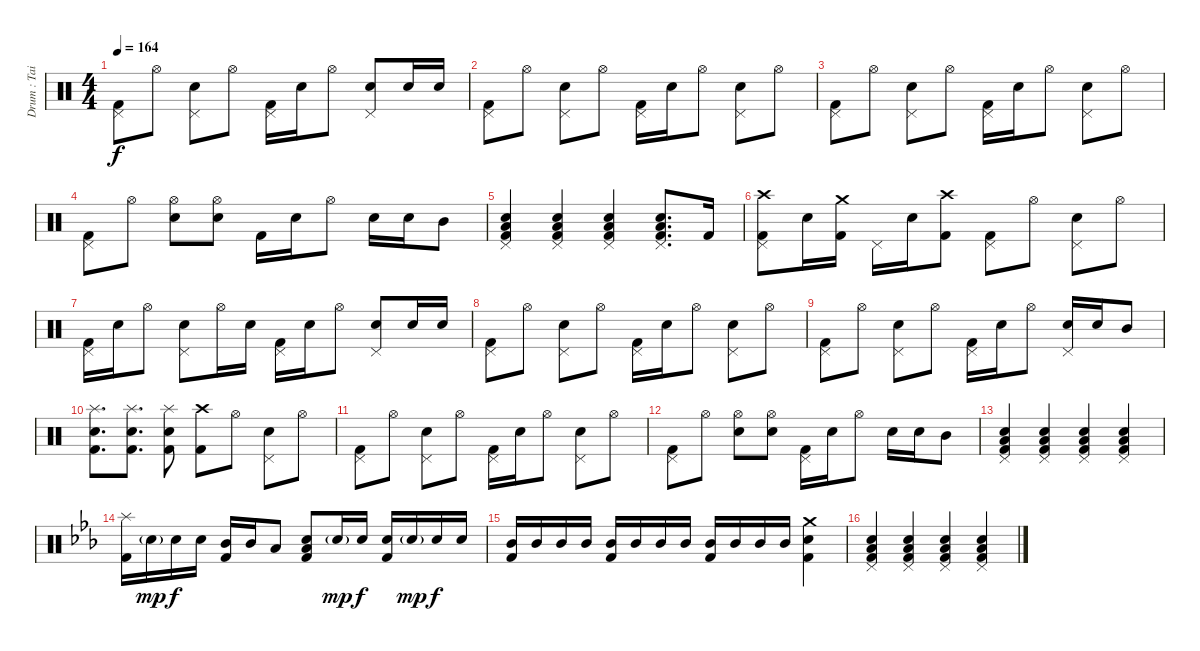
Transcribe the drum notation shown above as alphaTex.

\track ("Drum : Tainaka Ritsu - Chan" "Drum : Tai") {instrument percussion}
\staff {score}
\articulation defaults
\ts (4 4)
\tempo 164
\clef neutral
\ks c
("Pedal Hi-Hat (hit)" "Kick (hit) 2").8{dy f} "Hi-Hat (open)".8 ("Pedal Hi-Hat (hit)" "Electric Snare (hit)").8 "Hi-Hat (open)".8 ("Pedal Hi-Hat (hit)" "Kick (hit) 2").16 "Electric Snare (hit)".16 "Hi-Hat (open)".8 ("Pedal Hi-Hat (hit)" "Electric Snare (hit)").8 "Electric Snare (hit)".16 "Electric Snare (hit)".16 |
("Pedal Hi-Hat (hit)" "Kick (hit) 2").8 "Hi-Hat (open)".8 ("Pedal Hi-Hat (hit)" "Electric Snare (hit)").8 "Hi-Hat (open)".8 ("Pedal Hi-Hat (hit)" "Kick (hit) 2").16 "Electric Snare (hit)".16 "Hi-Hat (open)".8 ("Pedal Hi-Hat (hit)" "Electric Snare (hit)").8 "Hi-Hat (open)".8 |
("Pedal Hi-Hat (hit)" "Kick (hit) 2").8 "Hi-Hat (open)".8 ("Pedal Hi-Hat (hit)" "Electric Snare (hit)").8 "Hi-Hat (open)".8 ("Pedal Hi-Hat (hit)" "Kick (hit) 2").16 "Electric Snare (hit)".16 "Hi-Hat (open)".8 ("Pedal Hi-Hat (hit)" "Electric Snare (hit)").8 "Hi-Hat (open)".8 |
("Pedal Hi-Hat (hit)" "Kick (hit) 2").8 "Hi-Hat (open)".8 ("Hi-Hat (open)" "Electric Snare (hit)").8 ("Hi-Hat (open)" "Electric Snare (hit)").8 "Kick (hit) 2".16 "Electric Snare (hit)".16 "Hi-Hat (open)".8 "Electric Snare (hit)".16 "Electric Snare (hit)".16 "Mid Tom (hit)".8 |
("Pedal Hi-Hat (hit)" "Electric Snare (hit)" "Low Floor Tom (hit)" "Kick (hit) 2").4 ("Pedal Hi-Hat (hit)" "Electric Snare (hit)" "Low Floor Tom (hit)" "Kick (hit) 2").4 ("Pedal Hi-Hat (hit)" "Electric Snare (hit)" "Low Floor Tom (hit)" "Kick (hit) 2").4 ("Pedal Hi-Hat (hit)" "Electric Snare (hit)" "Low Floor Tom (hit)" "Kick (hit) 2").8{d} "Kick (hit) 2".16 |
("Crash high (hit)" "Pedal Hi-Hat (hit)" "Kick (hit) 2").8 "Electric Snare (hit)".16 ("Crash medium (hit)" "Kick (hit) 2").16 "Pedal Hi-Hat (hit)".16 "Electric Snare (hit)".16 ("Crash high (hit)" "Kick (hit) 2").8 ("Pedal Hi-Hat (hit)" "Kick (hit) 2").8 "Hi-Hat (open)".8 ("Pedal Hi-Hat (hit)" "Electric Snare (hit)").8 "Hi-Hat (open)".8 |
("Pedal Hi-Hat (hit)" "Kick (hit) 2").16 "Electric Snare (hit)".16 "Hi-Hat (open)".8 ("Pedal Hi-Hat (hit)" "Electric Snare (hit)").8 "Hi-Hat (open)".16 "Electric Snare (hit)".16 ("Pedal Hi-Hat (hit)" "Kick (hit) 2").16 "Electric Snare (hit)".16 "Hi-Hat (open)".8 ("Pedal Hi-Hat (hit)" "Electric Snare (hit)").8 "Electric Snare (hit)".16 "Electric Snare (hit)".16 |
("Pedal Hi-Hat (hit)" "Kick (hit) 2").8 "Hi-Hat (open)".8 ("Pedal Hi-Hat (hit)" "Electric Snare (hit)").8 "Hi-Hat (open)".8 ("Pedal Hi-Hat (hit)" "Kick (hit) 2").16 "Electric Snare (hit)".16 "Hi-Hat (open)".8 ("Pedal Hi-Hat (hit)" "Electric Snare (hit)").8 "Hi-Hat (open)".8 |
("Pedal Hi-Hat (hit)" "Kick (hit) 2").8 "Hi-Hat (open)".8 ("Pedal Hi-Hat (hit)" "Electric Snare (hit)").8 "Hi-Hat (open)".8 ("Pedal Hi-Hat (hit)" "Kick (hit) 2").16 "Electric Snare (hit)".16 "Hi-Hat (open)".8 ("Pedal Hi-Hat (hit)" "Electric Snare (hit)").16 "Electric Snare (hit)".16 "Mid Tom (hit)".8 |
("Splash (hit)" "Electric Snare (hit)" "Kick (hit) 2").8{d} ("Splash (hit)" "Electric Snare (hit)" "Kick (hit) 2").8{d} ("Splash (hit)" "Electric Snare (hit)" "Kick (hit) 2").8 ("Crash high (hit)" "Kick (hit) 2").8 "Hi-Hat (open)".8 ("Pedal Hi-Hat (hit)" "Electric Snare (hit)").8 "Hi-Hat (open)".8 |
("Pedal Hi-Hat (hit)" "Kick (hit) 2").8 "Hi-Hat (open)".8 ("Pedal Hi-Hat (hit)" "Electric Snare (hit)").8 "Hi-Hat (open)".8 ("Pedal Hi-Hat (hit)" "Kick (hit) 2").16 "Electric Snare (hit)".16 "Hi-Hat (open)".8 ("Pedal Hi-Hat (hit)" "Electric Snare (hit)").8 "Hi-Hat (open)".8 |
("Pedal Hi-Hat (hit)" "Kick (hit) 2").8 "Hi-Hat (open)".8 ("Hi-Hat (open)" "Electric Snare (hit)").8 ("Hi-Hat (open)" "Electric Snare (hit)").8 ("Pedal Hi-Hat (hit)" "Kick (hit) 2").16 "Electric Snare (hit)".16 "Hi-Hat (open)".8 "Electric Snare (hit)".16 "Electric Snare (hit)".16 "Mid Tom (hit)".8 |
("Pedal Hi-Hat (hit)" "Electric Snare (hit)" "Low Floor Tom (hit)" "Kick (hit) 2").4 ("Pedal Hi-Hat (hit)" "Electric Snare (hit)" "Low Floor Tom (hit)" "Kick (hit) 2").4 ("Pedal Hi-Hat (hit)" "Electric Snare (hit)" "Low Floor Tom (hit)" "Kick (hit) 2").4 ("Pedal Hi-Hat (hit)" "Electric Snare (hit)" "Low Floor Tom (hit)" "Kick (hit) 2").4 |
\ks eb
("Splash (hit)" "Kick (hit) 2").16 "Electric Snare (hit)"{g}.16{dy mp} "Electric Snare (hit)".16{dy f} "Electric Snare (hit)".16 ("Mid Tom (hit)" "Kick (hit) 2").16 "Mid Tom (hit)".16 "Low Tom (hit)".8 ("Electric Snare (hit)" "Low Floor Tom (hit)" "Kick (hit) 2").8 "Electric Snare (hit)"{g}.16{dy mp} "Electric Snare (hit)".16{dy f} ("Electric Snare (hit)" "Kick (hit) 2").16 "Electric Snare (hit)"{g}.16{dy mp} "Electric Snare (hit)".16{dy f} "Electric Snare (hit)".16 |
("Mid Tom (hit)" "Kick (hit) 2").16 "Mid Tom (hit)".16 "Mid Tom (hit)".16 "Mid Tom (hit)".16 ("Mid Tom (hit)" "Kick (hit) 2").16 "Mid Tom (hit)".16 "Mid Tom (hit)".16 "Mid Tom (hit)".16 ("Mid Tom (hit)" "Kick (hit) 2").16 "Mid Tom (hit)".16 "Mid Tom (hit)".16 "Mid Tom (hit)".16 ("Crash medium (hit)" "Electric Snare (hit)" "Kick (hit) 2").4 |
("Pedal Hi-Hat (hit)" "Electric Snare (hit)" "Low Floor Tom (hit)" "Kick (hit) 2").4 ("Pedal Hi-Hat (hit)" "Electric Snare (hit)" "Low Floor Tom (hit)" "Kick (hit) 2").4 ("Pedal Hi-Hat (hit)" "Electric Snare (hit)" "Low Floor Tom (hit)" "Kick (hit) 2").4 ("Pedal Hi-Hat (hit)" "Electric Snare (hit)" "Low Floor Tom (hit)" "Kick (hit) 2").4
